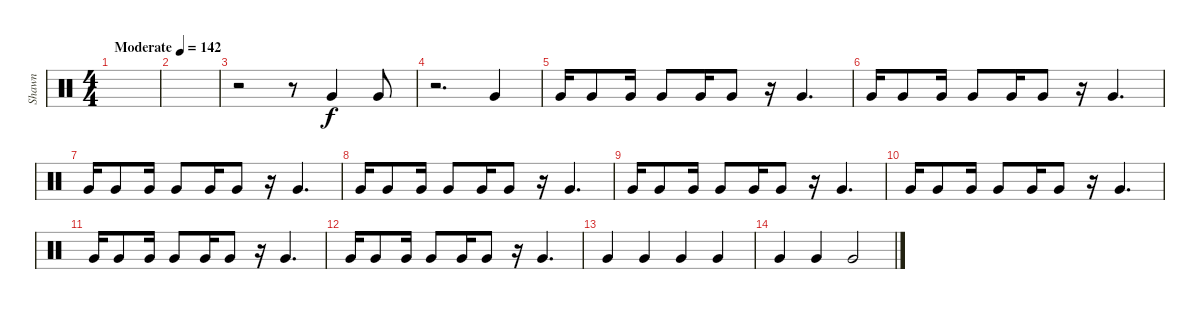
\track ("Shawn" "Shawn") {instrument percussion}
\staff {score}
\articulation defaults
\ts (4 4)
\tempo (142 "Moderate")
\clef neutral
\ks c
|
|
r.2 r.8 "Very Low Tom (hit)".4 "Very Low Tom (hit)".8 |
r.2{d} "Very Low Tom (hit)".4 |
"Very Low Tom (hit)".16 "Very Low Tom (hit)".8 "Very Low Tom (hit)".16 "Very Low Tom (hit)".8 "Very Low Tom (hit)".16 "Very Low Tom (hit)".8 r.16 "Very Low Tom (hit)".4{d} |
"Very Low Tom (hit)".16 "Very Low Tom (hit)".8 "Very Low Tom (hit)".16 "Very Low Tom (hit)".8 "Very Low Tom (hit)".16 "Very Low Tom (hit)".8 r.16 "Very Low Tom (hit)".4{d} |
"Very Low Tom (hit)".16 "Very Low Tom (hit)".8 "Very Low Tom (hit)".16 "Very Low Tom (hit)".8 "Very Low Tom (hit)".16 "Very Low Tom (hit)".8 r.16 "Very Low Tom (hit)".4{d} |
"Very Low Tom (hit)".16 "Very Low Tom (hit)".8 "Very Low Tom (hit)".16 "Very Low Tom (hit)".8 "Very Low Tom (hit)".16 "Very Low Tom (hit)".8 r.16 "Very Low Tom (hit)".4{d} |
"Very Low Tom (hit)".16 "Very Low Tom (hit)".8 "Very Low Tom (hit)".16 "Very Low Tom (hit)".8 "Very Low Tom (hit)".16 "Very Low Tom (hit)".8 r.16 "Very Low Tom (hit)".4{d} |
"Very Low Tom (hit)".16 "Very Low Tom (hit)".8 "Very Low Tom (hit)".16 "Very Low Tom (hit)".8 "Very Low Tom (hit)".16 "Very Low Tom (hit)".8 r.16 "Very Low Tom (hit)".4{d} |
"Very Low Tom (hit)".16 "Very Low Tom (hit)".8 "Very Low Tom (hit)".16 "Very Low Tom (hit)".8 "Very Low Tom (hit)".16 "Very Low Tom (hit)".8 r.16 "Very Low Tom (hit)".4{d} |
"Very Low Tom (hit)".16 "Very Low Tom (hit)".8 "Very Low Tom (hit)".16 "Very Low Tom (hit)".8 "Very Low Tom (hit)".16 "Very Low Tom (hit)".8 r.16 "Very Low Tom (hit)".4{d} |
"Very Low Tom (hit)".4 "Very Low Tom (hit)".4 "Very Low Tom (hit)".4 "Very Low Tom (hit)".4 |
"Very Low Tom (hit)".4 "Very Low Tom (hit)".4 "Very Low Tom (hit)".2
